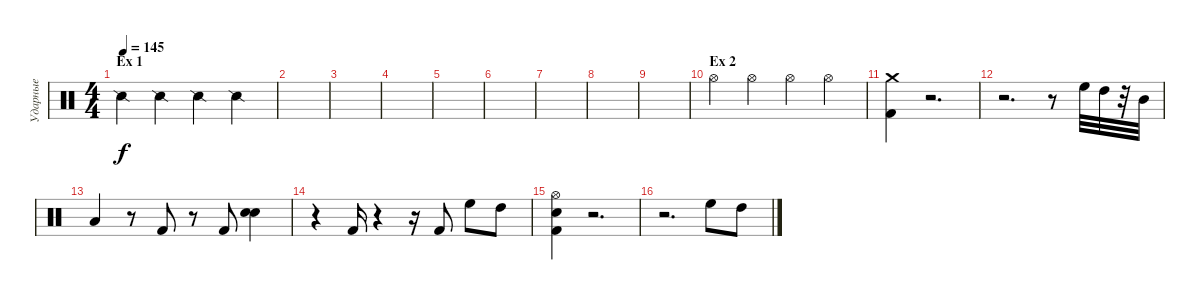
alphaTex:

\track ("Ударные" "Ударные") {instrument percussion}
\staff {score}
\articulation defaults
\ts (4 4)
\section ("" "Ex 1")
\tempo 145
\clef neutral
\ks c "Snare (side stick) 2".4{dy f} "Snare (side stick) 2".4 "Snare (side stick) 2".4 "Snare (side stick) 2".4
|
|
|
|
|
|
|
|
|
\section ("" "Ex 2")
"Hi-Hat (open)".4 "Hi-Hat (open)".4 "Hi-Hat (open)".4 "Hi-Hat (open)".4 |
("Crash medium (hit)" "Kick (hit) 2").4 r.2{d} |
r.2{d} r.8 "High Floor Tom (hit)".32 "High Tom (hit)".32 r.32 "Mid Tom (hit)".32 |
"Low Tom (hit)".4 r.8 "Kick (hit) 2".8 r.8 "Kick (hit) 2".8 ("Snare (hit) 2" "Snare (hit) 2").4 |
r.4 "Kick (hit) 2".16 r.4 r.16 "Kick (hit) 2".8 "High Floor Tom (hit)".8 "High Tom (hit)".8 |
("Hi-Hat (open)" "Snare (hit) 2" "Kick (hit) 2").4 r.2{d} |
r.2{d} "High Floor Tom (hit)".8 "High Tom (hit)".8
